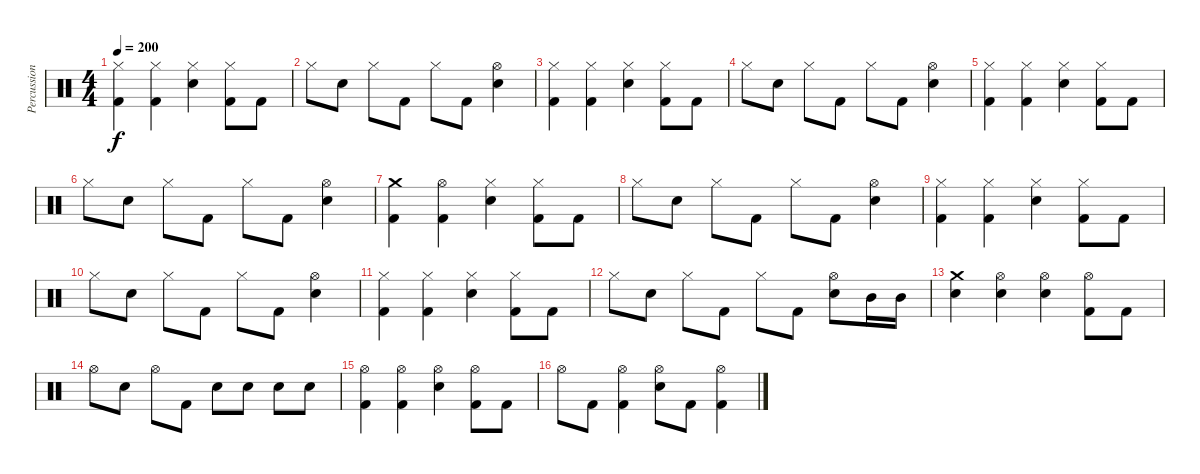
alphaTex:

\track ("Percussion" "Percussion") {instrument percussion}
\staff {score}
\articulation defaults
\ts (4 4)
\tempo 200
\clef neutral
\ks c
("Hi-Hat (closed)" "Kick (hit) 2").4{dy f} ("Hi-Hat (closed)" "Kick (hit) 2").4 ("Hi-Hat (closed)" "Electric Snare (hit)").4 ("Hi-Hat (closed)" "Kick (hit) 2").8 "Kick (hit) 2".8 |
"Hi-Hat (closed)".8 "Electric Snare (hit)".8 "Hi-Hat (closed)".8 "Kick (hit) 2".8 "Hi-Hat (closed)".8 "Kick (hit) 2".8 ("Hi-Hat (open)" "Electric Snare (hit)").4 |
("Hi-Hat (closed)" "Kick (hit) 2").4 ("Hi-Hat (closed)" "Kick (hit) 2").4 ("Hi-Hat (closed)" "Electric Snare (hit)").4 ("Hi-Hat (closed)" "Kick (hit) 2").8 "Kick (hit) 2".8 |
"Hi-Hat (closed)".8 "Electric Snare (hit)".8 "Hi-Hat (closed)".8 "Kick (hit) 2".8 "Hi-Hat (closed)".8 "Kick (hit) 2".8 ("Hi-Hat (open)" "Electric Snare (hit)").4 |
("Hi-Hat (closed)" "Kick (hit) 2").4 ("Hi-Hat (closed)" "Kick (hit) 2").4 ("Hi-Hat (closed)" "Electric Snare (hit)").4 ("Hi-Hat (closed)" "Kick (hit) 2").8 "Kick (hit) 2".8 |
"Hi-Hat (closed)".8 "Electric Snare (hit)".8 "Hi-Hat (closed)".8 "Kick (hit) 2".8 "Hi-Hat (closed)".8 "Kick (hit) 2".8 ("Hi-Hat (open)" "Electric Snare (hit)").4 |
("Crash medium (hit)" "Kick (hit) 2").4 ("Hi-Hat (open)" "Kick (hit) 2").4 ("Hi-Hat (closed)" "Electric Snare (hit)").4 ("Hi-Hat (closed)" "Kick (hit) 2").8 "Kick (hit) 2".8 |
"Hi-Hat (closed)".8 "Electric Snare (hit)".8 "Hi-Hat (closed)".8 "Kick (hit) 2".8 "Hi-Hat (closed)".8 "Kick (hit) 2".8 ("Hi-Hat (open)" "Electric Snare (hit)").4 |
("Hi-Hat (closed)" "Kick (hit) 2").4 ("Hi-Hat (closed)" "Kick (hit) 2").4 ("Hi-Hat (closed)" "Electric Snare (hit)").4 ("Hi-Hat (closed)" "Kick (hit) 2").8 "Kick (hit) 2".8 |
"Hi-Hat (closed)".8 "Electric Snare (hit)".8 "Hi-Hat (closed)".8 "Kick (hit) 2".8 "Hi-Hat (closed)".8 "Kick (hit) 2".8 ("Hi-Hat (open)" "Electric Snare (hit)").4 |
("Hi-Hat (closed)" "Kick (hit) 2").4 ("Hi-Hat (closed)" "Kick (hit) 2").4 ("Hi-Hat (closed)" "Electric Snare (hit)").4 ("Hi-Hat (closed)" "Kick (hit) 2").8 "Kick (hit) 2".8 |
"Hi-Hat (closed)".8 "Electric Snare (hit)".8 "Hi-Hat (closed)".8 "Kick (hit) 2".8 "Hi-Hat (closed)".8 "Kick (hit) 2".8 ("Hi-Hat (open)" "Electric Snare (hit)").8 "Mid Tom (hit)".16 "Mid Tom (hit)".16 |
("Crash medium (hit)" "Electric Snare (hit)").4 ("Hi-Hat (open)" "Electric Snare (hit)").4 ("Hi-Hat (open)" "Electric Snare (hit)").4 ("Hi-Hat (open)" "Kick (hit) 2").8 "Kick (hit) 2".8 |
"Hi-Hat (open)".8 "Electric Snare (hit)".8 "Hi-Hat (open)".8 "Kick (hit) 2".8 "Electric Snare (hit)".8 "Electric Snare (hit)".8 "Electric Snare (hit)".8 "Electric Snare (hit)".8 |
("Hi-Hat (open)" "Kick (hit) 2").4 ("Hi-Hat (open)" "Kick (hit) 2").4 ("Hi-Hat (open)" "Electric Snare (hit)").4 ("Hi-Hat (open)" "Kick (hit) 2").8 "Kick (hit) 2".8 |
"Hi-Hat (open)".8 "Kick (hit) 2".8 ("Hi-Hat (open)" "Kick (hit) 2").4 ("Hi-Hat (open)" "Electric Snare (hit)").8 "Kick (hit) 2".8 ("Hi-Hat (open)" "Kick (hit) 2").4
